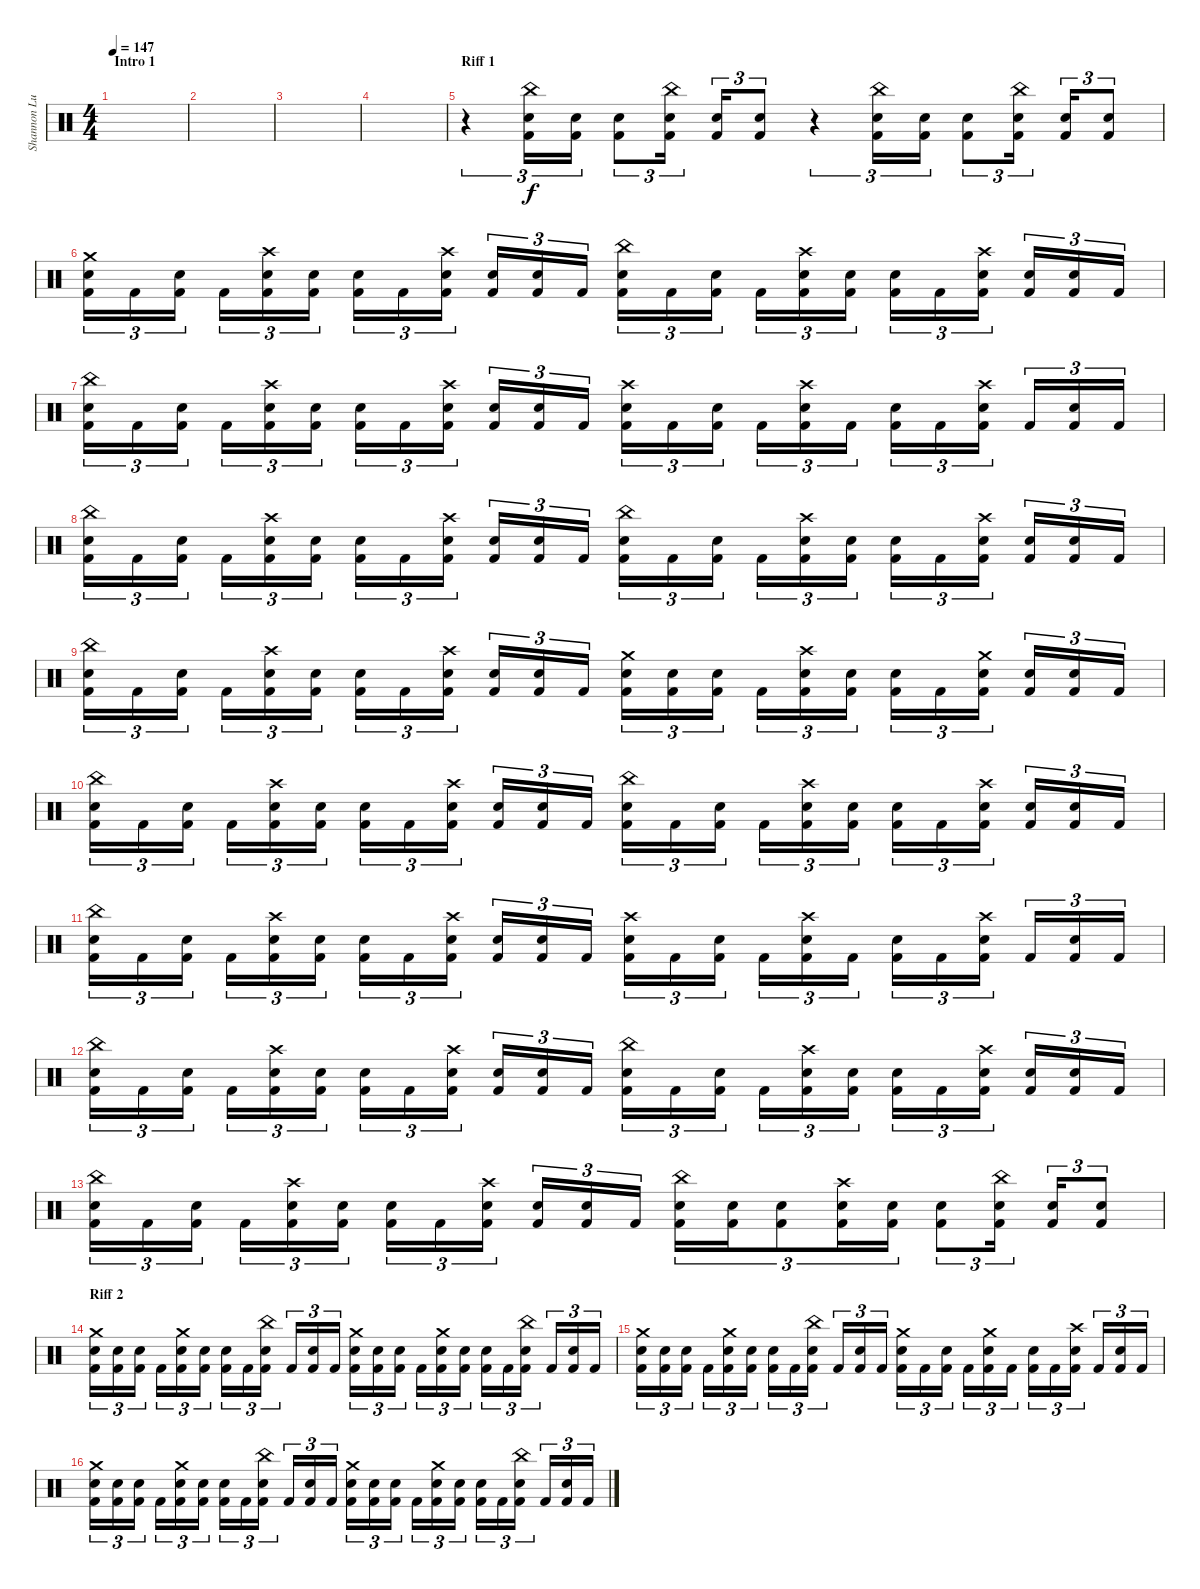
\track ("Shannon Lucas (Drums)" "Shannon Lu") {instrument percussion}
\staff {score}
\articulation defaults
\ts (4 4)
\section ("" "Intro 1")
\tempo 147
\clef neutral
\ks c
|
|
|
|
\section ("" "Riff 1")
r.4{tu (3 2)} ("China (hit)" "Snare (hit) 2" "Kick (hit) 2").16{tu (3 2)} ("Snare (hit) 2" "Kick (hit) 2").16{tu (3 2)} ("Snare (hit) 2" "Kick (hit) 2").8{tu (3 2)} ("China (hit)" "Snare (hit) 2" "Kick (hit) 2").16{tu (3 2)} ("Snare (hit) 2" "Kick (hit) 2").16{tu (3 2)} ("Snare (hit) 2" "Kick (hit) 2").8{tu (3 2)} r.4{tu (3 2)} ("China (hit)" "Snare (hit) 2" "Kick (hit) 2").16{tu (3 2)} ("Snare (hit) 2" "Kick (hit) 2").16{tu (3 2)} ("Snare (hit) 2" "Kick (hit) 2").8{tu (3 2)} ("China (hit)" "Snare (hit) 2" "Kick (hit) 2").16{tu (3 2)} ("Snare (hit) 2" "Kick (hit) 2").16{tu (3 2)} ("Snare (hit) 2" "Kick (hit) 2").8{tu (3 2)} |
("Crash medium (hit)" "Snare (hit) 2" "Kick (hit) 2").16{tu (3 2)} "Kick (hit) 2".16{tu (3 2)} ("Snare (hit) 2" "Kick (hit) 2").16{tu (3 2)} "Kick (hit) 2".16{tu (3 2)} ("Crash high (hit)" "Snare (hit) 2" "Kick (hit) 2").16{tu (3 2)} ("Snare (hit) 2" "Kick (hit) 2").16{tu (3 2)} ("Snare (hit) 2" "Kick (hit) 2").16{tu (3 2)} "Kick (hit) 2".16{tu (3 2)} ("Crash high (hit)" "Snare (hit) 2" "Kick (hit) 2").16{tu (3 2)} ("Snare (hit) 2" "Kick (hit) 2").16{tu (3 2)} ("Snare (hit) 2" "Kick (hit) 2").16{tu (3 2)} "Kick (hit) 2".16{tu (3 2)} ("China (hit)" "Snare (hit) 2" "Kick (hit) 2").16{tu (3 2)} "Kick (hit) 2".16{tu (3 2)} ("Snare (hit) 2" "Kick (hit) 2").16{tu (3 2)} "Kick (hit) 2".16{tu (3 2)} ("Crash high (hit)" "Snare (hit) 2" "Kick (hit) 2").16{tu (3 2)} ("Snare (hit) 2" "Kick (hit) 2").16{tu (3 2)} ("Snare (hit) 2" "Kick (hit) 2").16{tu (3 2)} "Kick (hit) 2".16{tu (3 2)} ("Crash high (hit)" "Snare (hit) 2" "Kick (hit) 2").16{tu (3 2)} ("Snare (hit) 2" "Kick (hit) 2").16{tu (3 2)} ("Snare (hit) 2" "Kick (hit) 2").16{tu (3 2)} "Kick (hit) 2".16{tu (3 2)} |
("China (hit)" "Snare (hit) 2" "Kick (hit) 2").16{tu (3 2)} "Kick (hit) 2".16{tu (3 2)} ("Snare (hit) 2" "Kick (hit) 2").16{tu (3 2)} "Kick (hit) 2".16{tu (3 2)} ("Crash high (hit)" "Snare (hit) 2" "Kick (hit) 2").16{tu (3 2)} ("Snare (hit) 2" "Kick (hit) 2").16{tu (3 2)} ("Snare (hit) 2" "Kick (hit) 2").16{tu (3 2)} "Kick (hit) 2".16{tu (3 2)} ("Crash high (hit)" "Snare (hit) 2" "Kick (hit) 2").16{tu (3 2)} ("Snare (hit) 2" "Kick (hit) 2").16{tu (3 2)} ("Snare (hit) 2" "Kick (hit) 2").16{tu (3 2)} "Kick (hit) 2".16{tu (3 2)} ("Crash high (hit)" "Snare (hit) 2" "Kick (hit) 2").16{tu (3 2)} "Kick (hit) 2".16{tu (3 2)} ("Snare (hit) 2" "Kick (hit) 2").16{tu (3 2)} "Kick (hit) 2".16{tu (3 2)} ("Crash high (hit)" "Snare (hit) 2" "Kick (hit) 2").16{tu (3 2)} "Kick (hit) 2".16{tu (3 2)} ("Snare (hit) 2" "Kick (hit) 2").16{tu (3 2)} "Kick (hit) 2".16{tu (3 2)} ("Crash high (hit)" "Snare (hit) 2" "Kick (hit) 2").16{tu (3 2)} "Kick (hit) 2".16{tu (3 2)} ("Snare (hit) 2" "Kick (hit) 2").16{tu (3 2)} "Kick (hit) 2".16{tu (3 2)} |
("China (hit)" "Snare (hit) 2" "Kick (hit) 2").16{tu (3 2)} "Kick (hit) 2".16{tu (3 2)} ("Snare (hit) 2" "Kick (hit) 2").16{tu (3 2)} "Kick (hit) 2".16{tu (3 2)} ("Crash high (hit)" "Snare (hit) 2" "Kick (hit) 2").16{tu (3 2)} ("Snare (hit) 2" "Kick (hit) 2").16{tu (3 2)} ("Snare (hit) 2" "Kick (hit) 2").16{tu (3 2)} "Kick (hit) 2".16{tu (3 2)} ("Crash high (hit)" "Snare (hit) 2" "Kick (hit) 2").16{tu (3 2)} ("Snare (hit) 2" "Kick (hit) 2").16{tu (3 2)} ("Snare (hit) 2" "Kick (hit) 2").16{tu (3 2)} "Kick (hit) 2".16{tu (3 2)} ("China (hit)" "Snare (hit) 2" "Kick (hit) 2").16{tu (3 2)} "Kick (hit) 2".16{tu (3 2)} ("Snare (hit) 2" "Kick (hit) 2").16{tu (3 2)} "Kick (hit) 2".16{tu (3 2)} ("Crash high (hit)" "Snare (hit) 2" "Kick (hit) 2").16{tu (3 2)} ("Snare (hit) 2" "Kick (hit) 2").16{tu (3 2)} ("Snare (hit) 2" "Kick (hit) 2").16{tu (3 2)} "Kick (hit) 2".16{tu (3 2)} ("Crash high (hit)" "Snare (hit) 2" "Kick (hit) 2").16{tu (3 2)} ("Snare (hit) 2" "Kick (hit) 2").16{tu (3 2)} ("Snare (hit) 2" "Kick (hit) 2").16{tu (3 2)} "Kick (hit) 2".16{tu (3 2)} |
("China (hit)" "Snare (hit) 2" "Kick (hit) 2").16{tu (3 2)} "Kick (hit) 2".16{tu (3 2)} ("Snare (hit) 2" "Kick (hit) 2").16{tu (3 2)} "Kick (hit) 2".16{tu (3 2)} ("Crash high (hit)" "Snare (hit) 2" "Kick (hit) 2").16{tu (3 2)} ("Snare (hit) 2" "Kick (hit) 2").16{tu (3 2)} ("Snare (hit) 2" "Kick (hit) 2").16{tu (3 2)} "Kick (hit) 2".16{tu (3 2)} ("Crash high (hit)" "Snare (hit) 2" "Kick (hit) 2").16{tu (3 2)} ("Snare (hit) 2" "Kick (hit) 2").16{tu (3 2)} ("Snare (hit) 2" "Kick (hit) 2").16{tu (3 2)} "Kick (hit) 2".16{tu (3 2)} ("Crash medium (hit)" "Snare (hit) 2" "Kick (hit) 2").16{tu (3 2)} ("Snare (hit) 2" "Kick (hit) 2").16{tu (3 2)} ("Snare (hit) 2" "Kick (hit) 2").16{tu (3 2)} "Kick (hit) 2".16{tu (3 2)} ("Crash high (hit)" "Snare (hit) 2" "Kick (hit) 2").16{tu (3 2)} ("Snare (hit) 2" "Kick (hit) 2").16{tu (3 2)} ("Snare (hit) 2" "Kick (hit) 2").16{tu (3 2)} "Kick (hit) 2".16{tu (3 2)} ("Crash medium (hit)" "Snare (hit) 2" "Kick (hit) 2").16{tu (3 2)} ("Snare (hit) 2" "Kick (hit) 2").16{tu (3 2)} ("Snare (hit) 2" "Kick (hit) 2").16{tu (3 2)} "Kick (hit) 2".16{tu (3 2)} |
("China (hit)" "Snare (hit) 2" "Kick (hit) 2").16{tu (3 2)} "Kick (hit) 2".16{tu (3 2)} ("Snare (hit) 2" "Kick (hit) 2").16{tu (3 2)} "Kick (hit) 2".16{tu (3 2)} ("Crash high (hit)" "Snare (hit) 2" "Kick (hit) 2").16{tu (3 2)} ("Snare (hit) 2" "Kick (hit) 2").16{tu (3 2)} ("Snare (hit) 2" "Kick (hit) 2").16{tu (3 2)} "Kick (hit) 2".16{tu (3 2)} ("Crash high (hit)" "Snare (hit) 2" "Kick (hit) 2").16{tu (3 2)} ("Snare (hit) 2" "Kick (hit) 2").16{tu (3 2)} ("Snare (hit) 2" "Kick (hit) 2").16{tu (3 2)} "Kick (hit) 2".16{tu (3 2)} ("China (hit)" "Snare (hit) 2" "Kick (hit) 2").16{tu (3 2)} "Kick (hit) 2".16{tu (3 2)} ("Snare (hit) 2" "Kick (hit) 2").16{tu (3 2)} "Kick (hit) 2".16{tu (3 2)} ("Crash high (hit)" "Snare (hit) 2" "Kick (hit) 2").16{tu (3 2)} ("Snare (hit) 2" "Kick (hit) 2").16{tu (3 2)} ("Snare (hit) 2" "Kick (hit) 2").16{tu (3 2)} "Kick (hit) 2".16{tu (3 2)} ("Crash high (hit)" "Snare (hit) 2" "Kick (hit) 2").16{tu (3 2)} ("Snare (hit) 2" "Kick (hit) 2").16{tu (3 2)} ("Snare (hit) 2" "Kick (hit) 2").16{tu (3 2)} "Kick (hit) 2".16{tu (3 2)} |
("China (hit)" "Snare (hit) 2" "Kick (hit) 2").16{tu (3 2)} "Kick (hit) 2".16{tu (3 2)} ("Snare (hit) 2" "Kick (hit) 2").16{tu (3 2)} "Kick (hit) 2".16{tu (3 2)} ("Crash high (hit)" "Snare (hit) 2" "Kick (hit) 2").16{tu (3 2)} ("Snare (hit) 2" "Kick (hit) 2").16{tu (3 2)} ("Snare (hit) 2" "Kick (hit) 2").16{tu (3 2)} "Kick (hit) 2".16{tu (3 2)} ("Crash high (hit)" "Snare (hit) 2" "Kick (hit) 2").16{tu (3 2)} ("Snare (hit) 2" "Kick (hit) 2").16{tu (3 2)} ("Snare (hit) 2" "Kick (hit) 2").16{tu (3 2)} "Kick (hit) 2".16{tu (3 2)} ("Crash high (hit)" "Snare (hit) 2" "Kick (hit) 2").16{tu (3 2)} "Kick (hit) 2".16{tu (3 2)} ("Snare (hit) 2" "Kick (hit) 2").16{tu (3 2)} "Kick (hit) 2".16{tu (3 2)} ("Crash high (hit)" "Snare (hit) 2" "Kick (hit) 2").16{tu (3 2)} "Kick (hit) 2".16{tu (3 2)} ("Snare (hit) 2" "Kick (hit) 2").16{tu (3 2)} "Kick (hit) 2".16{tu (3 2)} ("Crash high (hit)" "Snare (hit) 2" "Kick (hit) 2").16{tu (3 2)} "Kick (hit) 2".16{tu (3 2)} ("Snare (hit) 2" "Kick (hit) 2").16{tu (3 2)} "Kick (hit) 2".16{tu (3 2)} |
("China (hit)" "Snare (hit) 2" "Kick (hit) 2").16{tu (3 2)} "Kick (hit) 2".16{tu (3 2)} ("Snare (hit) 2" "Kick (hit) 2").16{tu (3 2)} "Kick (hit) 2".16{tu (3 2)} ("Crash high (hit)" "Snare (hit) 2" "Kick (hit) 2").16{tu (3 2)} ("Snare (hit) 2" "Kick (hit) 2").16{tu (3 2)} ("Snare (hit) 2" "Kick (hit) 2").16{tu (3 2)} "Kick (hit) 2".16{tu (3 2)} ("Crash high (hit)" "Snare (hit) 2" "Kick (hit) 2").16{tu (3 2)} ("Snare (hit) 2" "Kick (hit) 2").16{tu (3 2)} ("Snare (hit) 2" "Kick (hit) 2").16{tu (3 2)} "Kick (hit) 2".16{tu (3 2)} ("China (hit)" "Snare (hit) 2" "Kick (hit) 2").16{tu (3 2)} "Kick (hit) 2".16{tu (3 2)} ("Snare (hit) 2" "Kick (hit) 2").16{tu (3 2)} "Kick (hit) 2".16{tu (3 2)} ("Crash high (hit)" "Snare (hit) 2" "Kick (hit) 2").16{tu (3 2)} ("Snare (hit) 2" "Kick (hit) 2").16{tu (3 2)} ("Snare (hit) 2" "Kick (hit) 2").16{tu (3 2)} "Kick (hit) 2".16{tu (3 2)} ("Crash high (hit)" "Snare (hit) 2" "Kick (hit) 2").16{tu (3 2)} ("Snare (hit) 2" "Kick (hit) 2").16{tu (3 2)} ("Snare (hit) 2" "Kick (hit) 2").16{tu (3 2)} "Kick (hit) 2".16{tu (3 2)} |
("China (hit)" "Snare (hit) 2" "Kick (hit) 2").16{tu (3 2)} "Kick (hit) 2".16{tu (3 2)} ("Snare (hit) 2" "Kick (hit) 2").16{tu (3 2)} "Kick (hit) 2".16{tu (3 2)} ("Crash high (hit)" "Snare (hit) 2" "Kick (hit) 2").16{tu (3 2)} ("Snare (hit) 2" "Kick (hit) 2").16{tu (3 2)} ("Snare (hit) 2" "Kick (hit) 2").16{tu (3 2)} "Kick (hit) 2".16{tu (3 2)} ("Crash high (hit)" "Snare (hit) 2" "Kick (hit) 2").16{tu (3 2)} ("Snare (hit) 2" "Kick (hit) 2").16{tu (3 2)} ("Snare (hit) 2" "Kick (hit) 2").16{tu (3 2)} "Kick (hit) 2".16{tu (3 2)} ("China (hit)" "Snare (hit) 2" "Kick (hit) 2").16{tu (3 2)} ("Snare (hit) 2" "Kick (hit) 2").16{tu (3 2)} ("Snare (hit) 2" "Kick (hit) 2").8{tu (3 2)} ("Crash high (hit)" "Snare (hit) 2" "Kick (hit) 2").16{tu (3 2)} ("Snare (hit) 2" "Kick (hit) 2").16{tu (3 2)} ("Snare (hit) 2" "Kick (hit) 2").8{tu (3 2)} ("China (hit)" "Snare (hit) 2" "Kick (hit) 2").16{tu (3 2)} ("Snare (hit) 2" "Kick (hit) 2").16{tu (3 2)} ("Snare (hit) 2" "Kick (hit) 2").8{tu (3 2)} |
\section ("" "Riff 2")
("Crash medium (hit)" "Snare (hit) 2" "Kick (hit) 2").16{tu (3 2)} ("Snare (hit) 2" "Kick (hit) 2").16{tu (3 2)} ("Snare (hit) 2" "Kick (hit) 2").16{tu (3 2)} "Kick (hit) 2".16{tu (3 2)} ("Crash medium (hit)" "Snare (hit) 2" "Kick (hit) 2").16{tu (3 2)} ("Snare (hit) 2" "Kick (hit) 2").16{tu (3 2)} ("Snare (hit) 2" "Kick (hit) 2").16{tu (3 2)} "Kick (hit) 2".16{tu (3 2)} ("China (hit)" "Snare (hit) 2" "Kick (hit) 2").16{tu (3 2)} "Kick (hit) 2".16{tu (3 2)} ("Snare (hit) 2" "Kick (hit) 2").16{tu (3 2)} "Kick (hit) 2".16{tu (3 2)} ("Crash medium (hit)" "Snare (hit) 2" "Kick (hit) 2").16{tu (3 2)} ("Snare (hit) 2" "Kick (hit) 2").16{tu (3 2)} ("Snare (hit) 2" "Kick (hit) 2").16{tu (3 2)} "Kick (hit) 2".16{tu (3 2)} ("Crash medium (hit)" "Snare (hit) 2" "Kick (hit) 2").16{tu (3 2)} ("Snare (hit) 2" "Kick (hit) 2").16{tu (3 2)} ("Snare (hit) 2" "Kick (hit) 2").16{tu (3 2)} "Kick (hit) 2".16{tu (3 2)} ("China (hit)" "Snare (hit) 2" "Kick (hit) 2").16{tu (3 2)} "Kick (hit) 2".16{tu (3 2)} ("Snare (hit) 2" "Kick (hit) 2").16{tu (3 2)} "Kick (hit) 2".16{tu (3 2)} |
("Crash medium (hit)" "Snare (hit) 2" "Kick (hit) 2").16{tu (3 2)} ("Snare (hit) 2" "Kick (hit) 2").16{tu (3 2)} ("Snare (hit) 2" "Kick (hit) 2").16{tu (3 2)} "Kick (hit) 2".16{tu (3 2)} ("Crash medium (hit)" "Snare (hit) 2" "Kick (hit) 2").16{tu (3 2)} ("Snare (hit) 2" "Kick (hit) 2").16{tu (3 2)} ("Snare (hit) 2" "Kick (hit) 2").16{tu (3 2)} "Kick (hit) 2".16{tu (3 2)} ("China (hit)" "Snare (hit) 2" "Kick (hit) 2").16{tu (3 2)} "Kick (hit) 2".16{tu (3 2)} ("Snare (hit) 2" "Kick (hit) 2").16{tu (3 2)} "Kick (hit) 2".16{tu (3 2)} ("Crash medium (hit)" "Snare (hit) 2" "Kick (hit) 2").16{tu (3 2)} "Kick (hit) 2".16{tu (3 2)} ("Snare (hit) 2" "Kick (hit) 2").16{tu (3 2)} "Kick (hit) 2".16{tu (3 2)} ("Crash medium (hit)" "Snare (hit) 2" "Kick (hit) 2").16{tu (3 2)} "Kick (hit) 2".16{tu (3 2)} ("Snare (hit) 2" "Kick (hit) 2").16{tu (3 2)} "Kick (hit) 2".16{tu (3 2)} ("Crash high (hit)" "Snare (hit) 2" "Kick (hit) 2").16{tu (3 2)} "Kick (hit) 2".16{tu (3 2)} ("Snare (hit) 2" "Kick (hit) 2").16{tu (3 2)} "Kick (hit) 2".16{tu (3 2)} |
("Crash medium (hit)" "Snare (hit) 2" "Kick (hit) 2").16{tu (3 2)} ("Snare (hit) 2" "Kick (hit) 2").16{tu (3 2)} ("Snare (hit) 2" "Kick (hit) 2").16{tu (3 2)} "Kick (hit) 2".16{tu (3 2)} ("Crash medium (hit)" "Snare (hit) 2" "Kick (hit) 2").16{tu (3 2)} ("Snare (hit) 2" "Kick (hit) 2").16{tu (3 2)} ("Snare (hit) 2" "Kick (hit) 2").16{tu (3 2)} "Kick (hit) 2".16{tu (3 2)} ("China (hit)" "Snare (hit) 2" "Kick (hit) 2").16{tu (3 2)} "Kick (hit) 2".16{tu (3 2)} ("Snare (hit) 2" "Kick (hit) 2").16{tu (3 2)} "Kick (hit) 2".16{tu (3 2)} ("Crash medium (hit)" "Snare (hit) 2" "Kick (hit) 2").16{tu (3 2)} ("Snare (hit) 2" "Kick (hit) 2").16{tu (3 2)} ("Snare (hit) 2" "Kick (hit) 2").16{tu (3 2)} "Kick (hit) 2".16{tu (3 2)} ("Crash medium (hit)" "Snare (hit) 2" "Kick (hit) 2").16{tu (3 2)} ("Snare (hit) 2" "Kick (hit) 2").16{tu (3 2)} ("Snare (hit) 2" "Kick (hit) 2").16{tu (3 2)} "Kick (hit) 2".16{tu (3 2)} ("China (hit)" "Snare (hit) 2" "Kick (hit) 2").16{tu (3 2)} "Kick (hit) 2".16{tu (3 2)} ("Snare (hit) 2" "Kick (hit) 2").16{tu (3 2)} "Kick (hit) 2".16{tu (3 2)}
